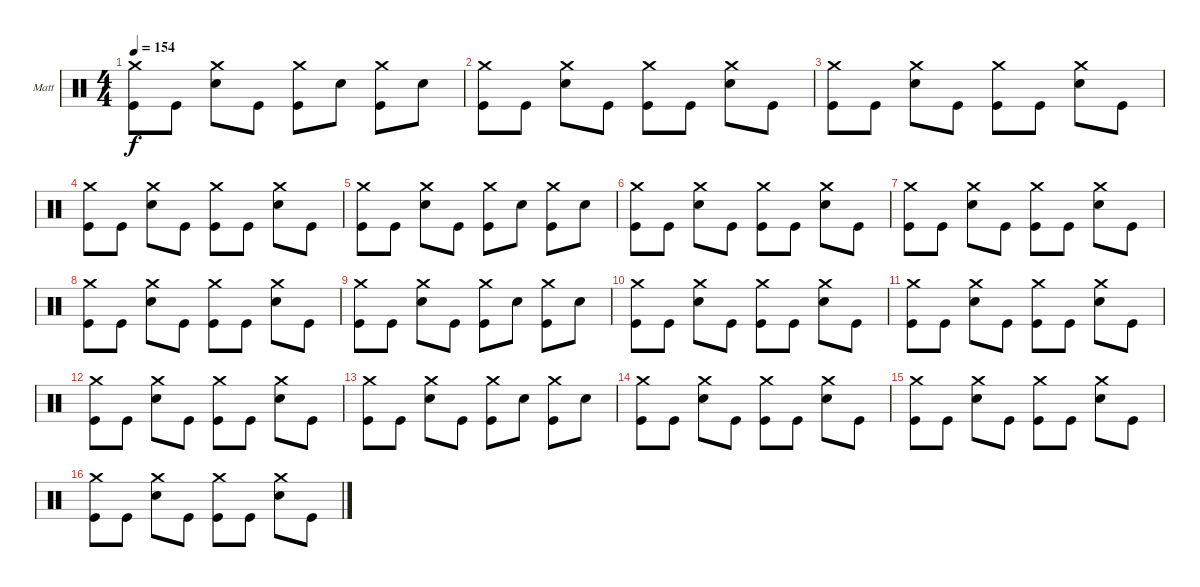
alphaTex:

\defaultSystemsLayout 4
\bracketExtendMode groupsimilarinstruments
\firstSystemTrackNameOrientation horizontal
\otherSystemsTrackNameOrientation horizontal
\track ("Matt Helders" "Matt") {instrument percussion}
\staff {score}
\articulation defaults
\ts (4 4)
\tempo 154
\clef neutral
\ks c
("Crash medium (hit)" "Kick (hit)").8{dy f} "Kick (hit)".8 ("Crash medium (hit)" "Snare (hit) 2").8 "Kick (hit)".8 ("Crash medium (hit)" "Kick (hit)").8 "Snare (hit) 2".8 ("Crash medium (hit)" "Kick (hit)").8 "Snare (hit) 2".8 |
("Crash medium (hit)" "Kick (hit)").8 "Kick (hit)".8 ("Crash medium (hit)" "Snare (hit) 2").8 "Kick (hit)".8 ("Crash medium (hit)" "Kick (hit)").8 "Kick (hit)".8 ("Crash medium (hit)" "Snare (hit) 2").8 "Kick (hit)".8 |
("Crash medium (hit)" "Kick (hit)").8 "Kick (hit)".8 ("Crash medium (hit)" "Snare (hit) 2").8 "Kick (hit)".8 ("Crash medium (hit)" "Kick (hit)").8 "Kick (hit)".8 ("Crash medium (hit)" "Snare (hit) 2").8 "Kick (hit)".8 |
("Crash medium (hit)" "Kick (hit)").8 "Kick (hit)".8 ("Crash medium (hit)" "Snare (hit) 2").8 "Kick (hit)".8 ("Crash medium (hit)" "Kick (hit)").8 "Kick (hit)".8 ("Crash medium (hit)" "Snare (hit) 2").8 "Kick (hit)".8 |
("Crash medium (hit)" "Kick (hit)").8 "Kick (hit)".8 ("Crash medium (hit)" "Snare (hit) 2").8 "Kick (hit)".8 ("Crash medium (hit)" "Kick (hit)").8 "Snare (hit) 2".8 ("Crash medium (hit)" "Kick (hit)").8 "Snare (hit) 2".8 |
("Crash medium (hit)" "Kick (hit)").8 "Kick (hit)".8 ("Crash medium (hit)" "Snare (hit) 2").8 "Kick (hit)".8 ("Crash medium (hit)" "Kick (hit)").8 "Kick (hit)".8 ("Crash medium (hit)" "Snare (hit) 2").8 "Kick (hit)".8 |
("Crash medium (hit)" "Kick (hit)").8 "Kick (hit)".8 ("Crash medium (hit)" "Snare (hit) 2").8 "Kick (hit)".8 ("Crash medium (hit)" "Kick (hit)").8 "Kick (hit)".8 ("Crash medium (hit)" "Snare (hit) 2").8 "Kick (hit)".8 |
("Crash medium (hit)" "Kick (hit)").8 "Kick (hit)".8 ("Crash medium (hit)" "Snare (hit) 2").8 "Kick (hit)".8 ("Crash medium (hit)" "Kick (hit)").8 "Kick (hit)".8 ("Crash medium (hit)" "Snare (hit) 2").8 "Kick (hit)".8 |
("Crash medium (hit)" "Kick (hit)").8 "Kick (hit)".8 ("Crash medium (hit)" "Snare (hit) 2").8 "Kick (hit)".8 ("Crash medium (hit)" "Kick (hit)").8 "Snare (hit) 2".8 ("Crash medium (hit)" "Kick (hit)").8 "Snare (hit) 2".8 |
("Crash medium (hit)" "Kick (hit)").8 "Kick (hit)".8 ("Crash medium (hit)" "Snare (hit) 2").8 "Kick (hit)".8 ("Crash medium (hit)" "Kick (hit)").8 "Kick (hit)".8 ("Crash medium (hit)" "Snare (hit) 2").8 "Kick (hit)".8 |
("Crash medium (hit)" "Kick (hit)").8 "Kick (hit)".8 ("Crash medium (hit)" "Snare (hit) 2").8 "Kick (hit)".8 ("Crash medium (hit)" "Kick (hit)").8 "Kick (hit)".8 ("Crash medium (hit)" "Snare (hit) 2").8 "Kick (hit)".8 |
("Crash medium (hit)" "Kick (hit)").8 "Kick (hit)".8 ("Crash medium (hit)" "Snare (hit) 2").8 "Kick (hit)".8 ("Crash medium (hit)" "Kick (hit)").8 "Kick (hit)".8 ("Crash medium (hit)" "Snare (hit) 2").8 "Kick (hit)".8 |
("Crash medium (hit)" "Kick (hit)").8 "Kick (hit)".8 ("Crash medium (hit)" "Snare (hit) 2").8 "Kick (hit)".8 ("Crash medium (hit)" "Kick (hit)").8 "Snare (hit) 2".8 ("Crash medium (hit)" "Kick (hit)").8 "Snare (hit) 2".8 |
("Crash medium (hit)" "Kick (hit)").8 "Kick (hit)".8 ("Crash medium (hit)" "Snare (hit) 2").8 "Kick (hit)".8 ("Crash medium (hit)" "Kick (hit)").8 "Kick (hit)".8 ("Crash medium (hit)" "Snare (hit) 2").8 "Kick (hit)".8 |
("Crash medium (hit)" "Kick (hit)").8 "Kick (hit)".8 ("Crash medium (hit)" "Snare (hit) 2").8 "Kick (hit)".8 ("Crash medium (hit)" "Kick (hit)").8 "Kick (hit)".8 ("Crash medium (hit)" "Snare (hit) 2").8 "Kick (hit)".8 |
("Crash medium (hit)" "Kick (hit)").8 "Kick (hit)".8 ("Crash medium (hit)" "Snare (hit) 2").8 "Kick (hit)".8 ("Crash medium (hit)" "Kick (hit)").8 "Kick (hit)".8 ("Crash medium (hit)" "Snare (hit) 2").8 "Kick (hit)".8
